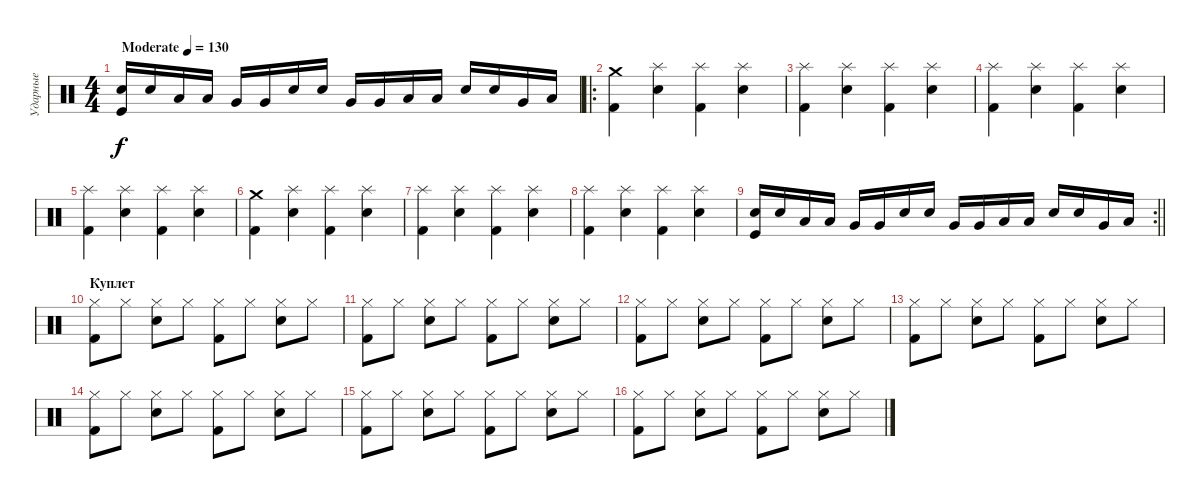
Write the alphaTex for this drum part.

\track ("Ударные" "Ударные") {instrument percussion}
\staff {score}
\articulation defaults
\ts (4 4)
\tempo (130 "Moderate")
\clef neutral
\ks c
("Electric Snare (hit)" "Kick (hit)").16{dy f} "Electric Snare (hit)".16 "Low Tom (hit)".16 "Low Tom (hit)".16 "Very Low Tom (hit)".16 "Very Low Tom (hit)".16 "Electric Snare (hit)".16 "Electric Snare (hit)".16 "Very Low Tom (hit)".16 "Very Low Tom (hit)".16 "Low Floor Tom (hit)".16 "Low Floor Tom (hit)".16 "Electric Snare (hit)".16 "Electric Snare (hit)".16 "Very Low Tom (hit)".16 "Low Floor Tom (hit)".16 |
\ro
("Kick (hit) 2" "Crash medium (hit)").4 ("Electric Snare (hit)" "Splash (hit)").4 ("Kick (hit) 2" "Splash (hit)").4 ("Electric Snare (hit)" "Splash (hit)").4 |
("Kick (hit) 2" "Splash (hit)").4 ("Electric Snare (hit)" "Splash (hit)").4 ("Kick (hit) 2" "Splash (hit)").4 ("Electric Snare (hit)" "Splash (hit)").4 |
("Kick (hit) 2" "Splash (hit)").4 ("Electric Snare (hit)" "Splash (hit)").4 ("Kick (hit) 2" "Splash (hit)").4 ("Electric Snare (hit)" "Splash (hit)").4 |
("Kick (hit) 2" "Splash (hit)").4 ("Electric Snare (hit)" "Splash (hit)").4 ("Kick (hit) 2" "Splash (hit)").4 ("Electric Snare (hit)" "Splash (hit)").4 |
("Kick (hit) 2" "Crash medium (hit)").4 ("Electric Snare (hit)" "Splash (hit)").4 ("Kick (hit) 2" "Splash (hit)").4 ("Electric Snare (hit)" "Splash (hit)").4 |
("Kick (hit) 2" "Splash (hit)").4 ("Electric Snare (hit)" "Splash (hit)").4 ("Kick (hit) 2" "Splash (hit)").4 ("Electric Snare (hit)" "Splash (hit)").4 |
("Kick (hit) 2" "Splash (hit)").4 ("Electric Snare (hit)" "Splash (hit)").4 ("Kick (hit) 2" "Splash (hit)").4 ("Electric Snare (hit)" "Splash (hit)").4 |
\rc 2
\barLineRight lightlight
("Electric Snare (hit)" "Kick (hit)").16 "Electric Snare (hit)".16 "Low Tom (hit)".16 "Low Tom (hit)".16 "Very Low Tom (hit)".16 "Very Low Tom (hit)".16 "Electric Snare (hit)".16 "Electric Snare (hit)".16 "Very Low Tom (hit)".16 "Very Low Tom (hit)".16 "Low Floor Tom (hit)".16 "Low Floor Tom (hit)".16 "Electric Snare (hit)".16 "Electric Snare (hit)".16 "Very Low Tom (hit)".16 "Low Floor Tom (hit)".16 |
\section ("" "Куплет")
("Hi-Hat (closed)" "Kick (hit) 2").8 "Hi-Hat (closed)".8 ("Hi-Hat (closed)" "Electric Snare (hit)").8 "Hi-Hat (closed)".8 ("Hi-Hat (closed)" "Kick (hit) 2").8 "Hi-Hat (closed)".8 ("Hi-Hat (closed)" "Electric Snare (hit)").8 "Hi-Hat (closed)".8 |
("Hi-Hat (closed)" "Kick (hit) 2").8 "Hi-Hat (closed)".8 ("Hi-Hat (closed)" "Electric Snare (hit)").8 "Hi-Hat (closed)".8 ("Hi-Hat (closed)" "Kick (hit) 2").8 "Hi-Hat (closed)".8 ("Hi-Hat (closed)" "Electric Snare (hit)").8 "Hi-Hat (closed)".8 |
("Hi-Hat (closed)" "Kick (hit) 2").8 "Hi-Hat (closed)".8 ("Hi-Hat (closed)" "Electric Snare (hit)").8 "Hi-Hat (closed)".8 ("Hi-Hat (closed)" "Kick (hit) 2").8 "Hi-Hat (closed)".8 ("Hi-Hat (closed)" "Electric Snare (hit)").8 "Hi-Hat (closed)".8 |
("Hi-Hat (closed)" "Kick (hit) 2").8 "Hi-Hat (closed)".8 ("Hi-Hat (closed)" "Electric Snare (hit)").8 "Hi-Hat (closed)".8 ("Hi-Hat (closed)" "Kick (hit) 2").8 "Hi-Hat (closed)".8 ("Hi-Hat (closed)" "Electric Snare (hit)").8 "Hi-Hat (closed)".8 |
("Hi-Hat (closed)" "Kick (hit) 2").8 "Hi-Hat (closed)".8 ("Hi-Hat (closed)" "Electric Snare (hit)").8 "Hi-Hat (closed)".8 ("Hi-Hat (closed)" "Kick (hit) 2").8 "Hi-Hat (closed)".8 ("Hi-Hat (closed)" "Electric Snare (hit)").8 "Hi-Hat (closed)".8 |
("Hi-Hat (closed)" "Kick (hit) 2").8 "Hi-Hat (closed)".8 ("Hi-Hat (closed)" "Electric Snare (hit)").8 "Hi-Hat (closed)".8 ("Hi-Hat (closed)" "Kick (hit) 2").8 "Hi-Hat (closed)".8 ("Hi-Hat (closed)" "Electric Snare (hit)").8 "Hi-Hat (closed)".8 |
("Hi-Hat (closed)" "Kick (hit) 2").8 "Hi-Hat (closed)".8 ("Hi-Hat (closed)" "Electric Snare (hit)").8 "Hi-Hat (closed)".8 ("Hi-Hat (closed)" "Kick (hit) 2").8 "Hi-Hat (closed)".8 ("Hi-Hat (closed)" "Electric Snare (hit)").8 "Hi-Hat (closed)".8
